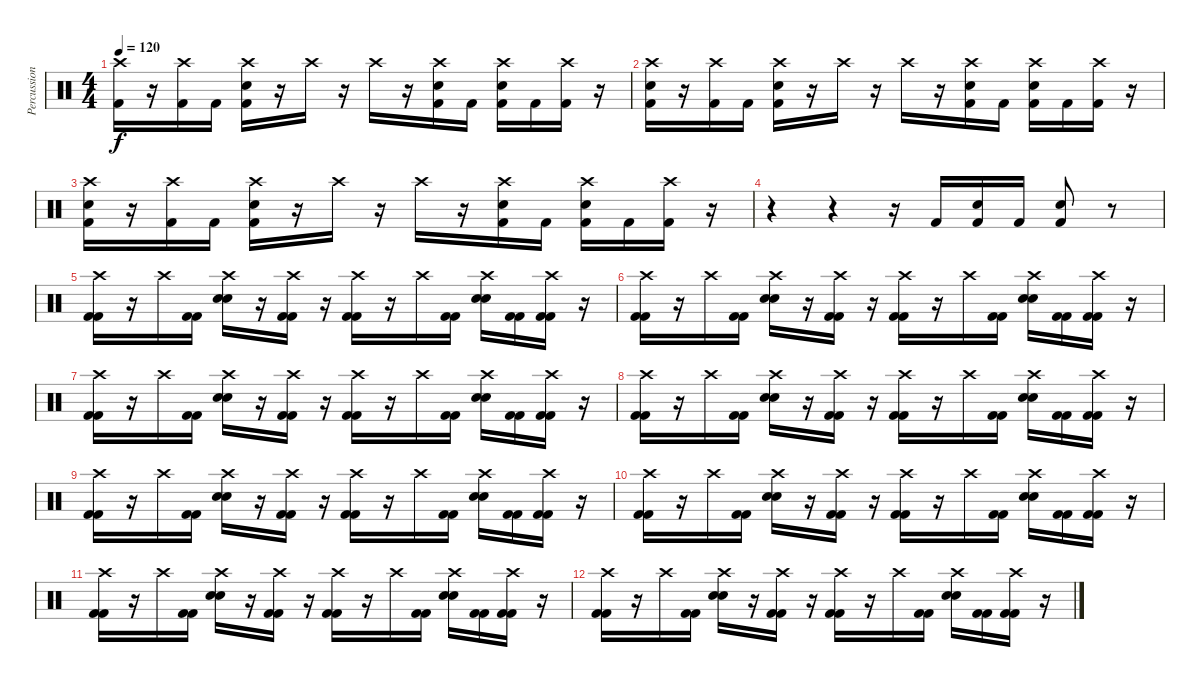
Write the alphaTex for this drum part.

\track ("Percussions" "Percussion") {instrument percussion}
\staff {score}
\articulation defaults
\ts (4 4)
\tempo 120
\clef neutral
\ks c
("Crash high (hit)" "Kick (hit) 2").16{dy f} r.16 ("Crash high (hit)" "Kick (hit) 2").16 "Kick (hit) 2".16 ("Crash high (hit)" "Electric Snare (hit)" "Kick (hit) 2").16 r.16 "Crash high (hit)".16 r.16 "Crash high (hit)".16 r.16 ("Crash high (hit)" "Electric Snare (hit)" "Kick (hit) 2").16 "Kick (hit) 2".16 ("Crash high (hit)" "Electric Snare (hit)" "Kick (hit) 2").16 "Kick (hit) 2".16 ("Crash high (hit)" "Kick (hit) 2").16 r.16 |
("Crash high (hit)" "Electric Snare (hit)" "Kick (hit) 2").16 r.16 ("Crash high (hit)" "Kick (hit) 2").16 "Kick (hit) 2".16 ("Crash high (hit)" "Electric Snare (hit)" "Kick (hit) 2").16 r.16 "Crash high (hit)".16 r.16 "Crash high (hit)".16 r.16 ("Crash high (hit)" "Electric Snare (hit)" "Kick (hit) 2").16 "Kick (hit) 2".16 ("Crash high (hit)" "Electric Snare (hit)" "Kick (hit) 2").16 "Kick (hit) 2".16 ("Crash high (hit)" "Kick (hit) 2").16 r.16 |
("Crash high (hit)" "Electric Snare (hit)" "Kick (hit) 2").16 r.16 ("Crash high (hit)" "Kick (hit) 2").16 "Kick (hit) 2".16 ("Crash high (hit)" "Electric Snare (hit)" "Kick (hit) 2").16 r.16 "Crash high (hit)".16 r.16 "Crash high (hit)".16 r.16 ("Crash high (hit)" "Electric Snare (hit)" "Kick (hit) 2").16 "Kick (hit) 2".16 ("Crash high (hit)" "Electric Snare (hit)" "Kick (hit) 2").16 "Kick (hit) 2".16 ("Crash high (hit)" "Kick (hit) 2").16 r.16 |
r.4 r.4 r.16 "Kick (hit) 2".16 ("Kick (hit) 2" "Electric Snare (hit)").16 "Kick (hit) 2".16 ("Kick (hit) 2" "Electric Snare (hit)").8 r.8 |
("Crash high (hit)" "Kick (hit) 2" "Kick (hit) 2").16 r.16 "Crash high (hit)".16 ("Kick (hit) 2" "Kick (hit) 2").16 ("Crash high (hit)" "Electric Snare (hit)" "Electric Snare (hit)").16 r.16 ("Crash high (hit)" "Kick (hit) 2" "Kick (hit) 2").16 r.16 ("Crash high (hit)" "Kick (hit) 2" "Kick (hit) 2").16 r.16 "Crash high (hit)".16 ("Kick (hit) 2" "Kick (hit) 2").16 ("Crash high (hit)" "Electric Snare (hit)" "Electric Snare (hit)").16 ("Kick (hit) 2" "Kick (hit) 2").16 ("Crash high (hit)" "Kick (hit) 2" "Kick (hit) 2").16 r.16 |
("Crash high (hit)" "Kick (hit) 2" "Kick (hit) 2").16 r.16 "Crash high (hit)".16 ("Kick (hit) 2" "Kick (hit) 2").16 ("Crash high (hit)" "Electric Snare (hit)" "Electric Snare (hit)").16 r.16 ("Crash high (hit)" "Kick (hit) 2" "Kick (hit) 2").16 r.16 ("Crash high (hit)" "Kick (hit) 2" "Kick (hit) 2").16 r.16 "Crash high (hit)".16 ("Kick (hit) 2" "Kick (hit) 2").16 ("Crash high (hit)" "Electric Snare (hit)" "Electric Snare (hit)").16 ("Kick (hit) 2" "Kick (hit) 2").16 ("Crash high (hit)" "Kick (hit) 2" "Kick (hit) 2").16 r.16 |
("Crash high (hit)" "Kick (hit) 2" "Kick (hit) 2").16 r.16 "Crash high (hit)".16 ("Kick (hit) 2" "Kick (hit) 2").16 ("Crash high (hit)" "Electric Snare (hit)" "Electric Snare (hit)").16 r.16 ("Crash high (hit)" "Kick (hit) 2" "Kick (hit) 2").16 r.16 ("Crash high (hit)" "Kick (hit) 2" "Kick (hit) 2").16 r.16 "Crash high (hit)".16 ("Kick (hit) 2" "Kick (hit) 2").16 ("Crash high (hit)" "Electric Snare (hit)" "Electric Snare (hit)").16 ("Kick (hit) 2" "Kick (hit) 2").16 ("Crash high (hit)" "Kick (hit) 2" "Kick (hit) 2").16 r.16 |
("Crash high (hit)" "Kick (hit) 2" "Kick (hit) 2").16 r.16 "Crash high (hit)".16 ("Kick (hit) 2" "Kick (hit) 2").16 ("Crash high (hit)" "Electric Snare (hit)" "Electric Snare (hit)").16 r.16 ("Crash high (hit)" "Kick (hit) 2" "Kick (hit) 2").16 r.16 ("Crash high (hit)" "Kick (hit) 2" "Kick (hit) 2").16 r.16 "Crash high (hit)".16 ("Kick (hit) 2" "Kick (hit) 2").16 ("Crash high (hit)" "Electric Snare (hit)" "Electric Snare (hit)").16 ("Kick (hit) 2" "Kick (hit) 2").16 ("Crash high (hit)" "Kick (hit) 2" "Kick (hit) 2").16 r.16 |
("Crash high (hit)" "Kick (hit) 2" "Kick (hit) 2").16 r.16 "Crash high (hit)".16 ("Kick (hit) 2" "Kick (hit) 2").16 ("Crash high (hit)" "Electric Snare (hit)" "Electric Snare (hit)").16 r.16 ("Crash high (hit)" "Kick (hit) 2" "Kick (hit) 2").16 r.16 ("Crash high (hit)" "Kick (hit) 2" "Kick (hit) 2").16 r.16 "Crash high (hit)".16 ("Kick (hit) 2" "Kick (hit) 2").16 ("Crash high (hit)" "Electric Snare (hit)" "Electric Snare (hit)").16 ("Kick (hit) 2" "Kick (hit) 2").16 ("Crash high (hit)" "Kick (hit) 2" "Kick (hit) 2").16 r.16 |
("Crash high (hit)" "Kick (hit) 2" "Kick (hit) 2").16 r.16 "Crash high (hit)".16 ("Kick (hit) 2" "Kick (hit) 2").16 ("Crash high (hit)" "Electric Snare (hit)" "Electric Snare (hit)").16 r.16 ("Crash high (hit)" "Kick (hit) 2" "Kick (hit) 2").16 r.16 ("Crash high (hit)" "Kick (hit) 2" "Kick (hit) 2").16 r.16 "Crash high (hit)".16 ("Kick (hit) 2" "Kick (hit) 2").16 ("Crash high (hit)" "Electric Snare (hit)" "Electric Snare (hit)").16 ("Kick (hit) 2" "Kick (hit) 2").16 ("Crash high (hit)" "Kick (hit) 2" "Kick (hit) 2").16 r.16 |
("Crash high (hit)" "Kick (hit) 2" "Kick (hit) 2").16 r.16 "Crash high (hit)".16 ("Kick (hit) 2" "Kick (hit) 2").16 ("Crash high (hit)" "Electric Snare (hit)" "Electric Snare (hit)").16 r.16 ("Crash high (hit)" "Kick (hit) 2" "Kick (hit) 2").16 r.16 ("Crash high (hit)" "Kick (hit) 2" "Kick (hit) 2").16 r.16 "Crash high (hit)".16 ("Kick (hit) 2" "Kick (hit) 2").16 ("Crash high (hit)" "Electric Snare (hit)" "Electric Snare (hit)").16 ("Kick (hit) 2" "Kick (hit) 2").16 ("Crash high (hit)" "Kick (hit) 2" "Kick (hit) 2").16 r.16 |
("Crash high (hit)" "Kick (hit) 2" "Kick (hit) 2").16 r.16 "Crash high (hit)".16 ("Kick (hit) 2" "Kick (hit) 2").16 ("Crash high (hit)" "Electric Snare (hit)" "Electric Snare (hit)").16 r.16 ("Crash high (hit)" "Kick (hit) 2" "Kick (hit) 2").16 r.16 ("Crash high (hit)" "Kick (hit) 2" "Kick (hit) 2").16 r.16 "Crash high (hit)".16 ("Kick (hit) 2" "Kick (hit) 2").16 ("Crash high (hit)" "Electric Snare (hit)" "Electric Snare (hit)").16 ("Kick (hit) 2" "Kick (hit) 2").16 ("Crash high (hit)" "Kick (hit) 2" "Kick (hit) 2").16 r.16
